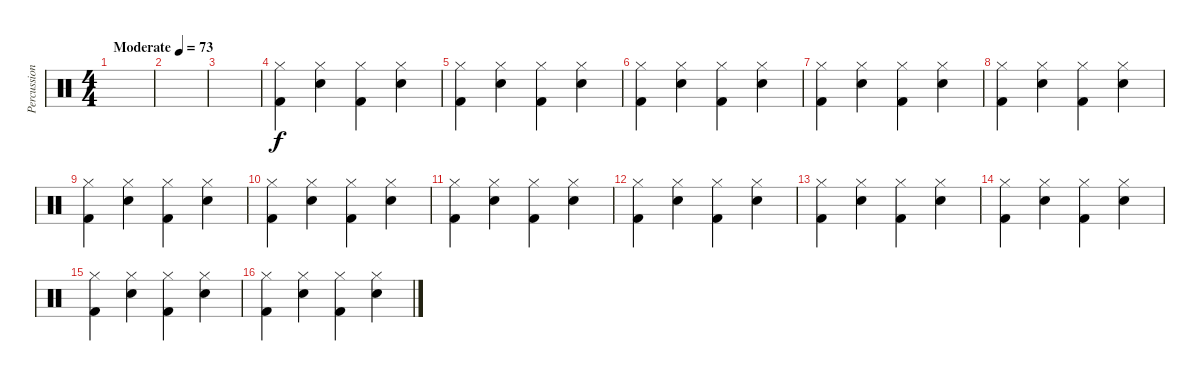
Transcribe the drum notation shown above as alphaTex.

\track ("Percussions" "Percussion") {instrument percussion}
\staff {score}
\articulation defaults
\ts (4 4)
\tempo (73 "Moderate")
\clef neutral
\ks c
|
|
|
("Hi-Hat (closed)" "Kick (hit) 2").4 ("Hi-Hat (closed)" "Electric Snare (hit)").4 ("Hi-Hat (closed)" "Kick (hit) 2").4 ("Hi-Hat (closed)" "Electric Snare (hit)").4 |
("Hi-Hat (closed)" "Kick (hit) 2").4 ("Hi-Hat (closed)" "Electric Snare (hit)").4 ("Hi-Hat (closed)" "Kick (hit) 2").4 ("Hi-Hat (closed)" "Electric Snare (hit)").4 |
("Hi-Hat (closed)" "Kick (hit) 2").4 ("Hi-Hat (closed)" "Electric Snare (hit)").4 ("Hi-Hat (closed)" "Kick (hit) 2").4 ("Hi-Hat (closed)" "Electric Snare (hit)").4 |
("Hi-Hat (closed)" "Kick (hit) 2").4 ("Hi-Hat (closed)" "Electric Snare (hit)").4 ("Hi-Hat (closed)" "Kick (hit) 2").4 ("Hi-Hat (closed)" "Electric Snare (hit)").4 |
("Hi-Hat (closed)" "Kick (hit) 2").4 ("Hi-Hat (closed)" "Electric Snare (hit)").4 ("Hi-Hat (closed)" "Kick (hit) 2").4 ("Hi-Hat (closed)" "Electric Snare (hit)").4 |
("Hi-Hat (closed)" "Kick (hit) 2").4 ("Hi-Hat (closed)" "Electric Snare (hit)").4 ("Hi-Hat (closed)" "Kick (hit) 2").4 ("Hi-Hat (closed)" "Electric Snare (hit)").4 |
("Hi-Hat (closed)" "Kick (hit) 2").4 ("Hi-Hat (closed)" "Electric Snare (hit)").4 ("Hi-Hat (closed)" "Kick (hit) 2").4 ("Hi-Hat (closed)" "Electric Snare (hit)").4 |
("Hi-Hat (closed)" "Kick (hit) 2").4 ("Hi-Hat (closed)" "Electric Snare (hit)").4 ("Hi-Hat (closed)" "Kick (hit) 2").4 ("Hi-Hat (closed)" "Electric Snare (hit)").4 |
("Hi-Hat (closed)" "Kick (hit) 2").4 ("Hi-Hat (closed)" "Electric Snare (hit)").4 ("Hi-Hat (closed)" "Kick (hit) 2").4 ("Hi-Hat (closed)" "Electric Snare (hit)").4 |
("Hi-Hat (closed)" "Kick (hit) 2").4 ("Hi-Hat (closed)" "Electric Snare (hit)").4 ("Hi-Hat (closed)" "Kick (hit) 2").4 ("Hi-Hat (closed)" "Electric Snare (hit)").4 |
("Hi-Hat (closed)" "Kick (hit) 2").4 ("Hi-Hat (closed)" "Electric Snare (hit)").4 ("Hi-Hat (closed)" "Kick (hit) 2").4 ("Hi-Hat (closed)" "Electric Snare (hit)").4 |
("Hi-Hat (closed)" "Kick (hit) 2").4 ("Hi-Hat (closed)" "Electric Snare (hit)").4 ("Hi-Hat (closed)" "Kick (hit) 2").4 ("Hi-Hat (closed)" "Electric Snare (hit)").4 |
("Hi-Hat (closed)" "Kick (hit) 2").4 ("Hi-Hat (closed)" "Electric Snare (hit)").4 ("Hi-Hat (closed)" "Kick (hit) 2").4 ("Hi-Hat (closed)" "Electric Snare (hit)").4
